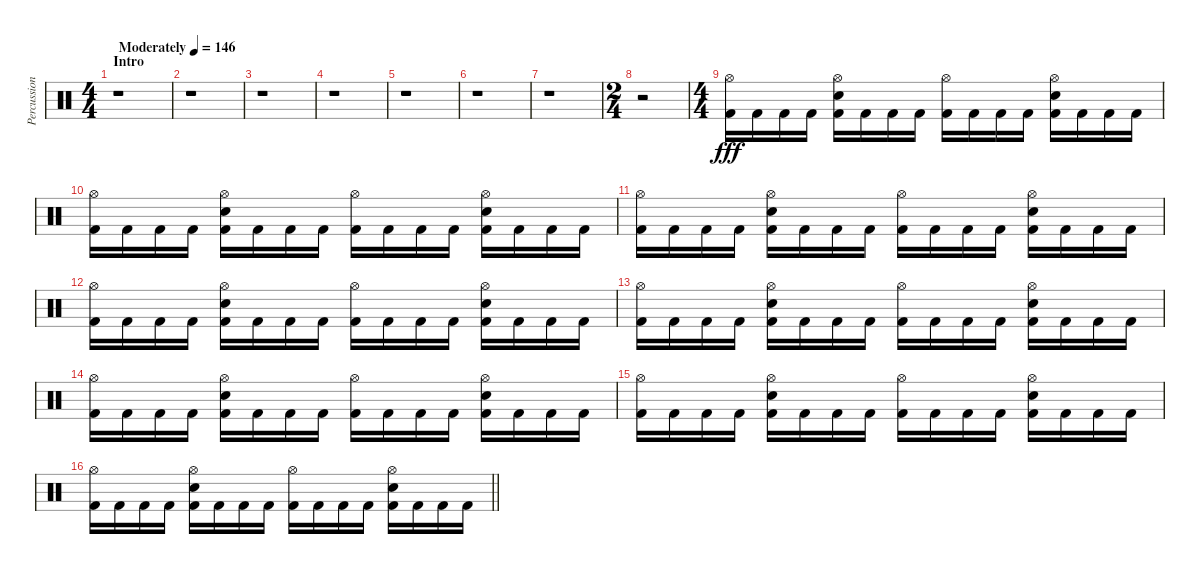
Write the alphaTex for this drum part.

\track ("Percussions" "Percussion") {instrument percussion}
\staff {score}
\articulation defaults
\ts (4 4)
\section ("" "Intro")
\tempo (146 "Moderately")
\clef neutral
\ks c
r.1{dy fff} |
r.1 |
r.1 |
r.1 |
r.1 |
r.1 |
r.1 |
\ts (2 4)
r.2 |
\ts (4 4)
("Hi-Hat (open)" "Kick (hit) 2").16 "Kick (hit) 2".16 "Kick (hit) 2".16 "Kick (hit) 2".16 ("Hi-Hat (open)" "Snare (hit) 2" "Kick (hit) 2").16 "Kick (hit) 2".16 "Kick (hit) 2".16 "Kick (hit) 2".16 ("Hi-Hat (open)" "Kick (hit) 2").16 "Kick (hit) 2".16 "Kick (hit) 2".16 "Kick (hit) 2".16 ("Hi-Hat (open)" "Snare (hit) 2" "Kick (hit) 2").16 "Kick (hit) 2".16 "Kick (hit) 2".16 "Kick (hit) 2".16 |
("Hi-Hat (open)" "Kick (hit) 2").16 "Kick (hit) 2".16 "Kick (hit) 2".16 "Kick (hit) 2".16 ("Hi-Hat (open)" "Snare (hit) 2" "Kick (hit) 2").16 "Kick (hit) 2".16 "Kick (hit) 2".16 "Kick (hit) 2".16 ("Hi-Hat (open)" "Kick (hit) 2").16 "Kick (hit) 2".16 "Kick (hit) 2".16 "Kick (hit) 2".16 ("Hi-Hat (open)" "Snare (hit) 2" "Kick (hit) 2").16 "Kick (hit) 2".16 "Kick (hit) 2".16 "Kick (hit) 2".16 |
("Hi-Hat (open)" "Kick (hit) 2").16 "Kick (hit) 2".16 "Kick (hit) 2".16 "Kick (hit) 2".16 ("Hi-Hat (open)" "Snare (hit) 2" "Kick (hit) 2").16 "Kick (hit) 2".16 "Kick (hit) 2".16 "Kick (hit) 2".16 ("Hi-Hat (open)" "Kick (hit) 2").16 "Kick (hit) 2".16 "Kick (hit) 2".16 "Kick (hit) 2".16 ("Hi-Hat (open)" "Snare (hit) 2" "Kick (hit) 2").16 "Kick (hit) 2".16 "Kick (hit) 2".16 "Kick (hit) 2".16 |
("Hi-Hat (open)" "Kick (hit) 2").16 "Kick (hit) 2".16 "Kick (hit) 2".16 "Kick (hit) 2".16 ("Hi-Hat (open)" "Snare (hit) 2" "Kick (hit) 2").16 "Kick (hit) 2".16 "Kick (hit) 2".16 "Kick (hit) 2".16 ("Hi-Hat (open)" "Kick (hit) 2").16 "Kick (hit) 2".16 "Kick (hit) 2".16 "Kick (hit) 2".16 ("Hi-Hat (open)" "Snare (hit) 2" "Kick (hit) 2").16 "Kick (hit) 2".16 "Kick (hit) 2".16 "Kick (hit) 2".16 |
("Hi-Hat (open)" "Kick (hit) 2").16 "Kick (hit) 2".16 "Kick (hit) 2".16 "Kick (hit) 2".16 ("Hi-Hat (open)" "Snare (hit) 2" "Kick (hit) 2").16 "Kick (hit) 2".16 "Kick (hit) 2".16 "Kick (hit) 2".16 ("Hi-Hat (open)" "Kick (hit) 2").16 "Kick (hit) 2".16 "Kick (hit) 2".16 "Kick (hit) 2".16 ("Hi-Hat (open)" "Snare (hit) 2" "Kick (hit) 2").16 "Kick (hit) 2".16 "Kick (hit) 2".16 "Kick (hit) 2".16 |
("Hi-Hat (open)" "Kick (hit) 2").16 "Kick (hit) 2".16 "Kick (hit) 2".16 "Kick (hit) 2".16 ("Hi-Hat (open)" "Snare (hit) 2" "Kick (hit) 2").16 "Kick (hit) 2".16 "Kick (hit) 2".16 "Kick (hit) 2".16 ("Hi-Hat (open)" "Kick (hit) 2").16 "Kick (hit) 2".16 "Kick (hit) 2".16 "Kick (hit) 2".16 ("Hi-Hat (open)" "Snare (hit) 2" "Kick (hit) 2").16 "Kick (hit) 2".16 "Kick (hit) 2".16 "Kick (hit) 2".16 |
("Hi-Hat (open)" "Kick (hit) 2").16 "Kick (hit) 2".16 "Kick (hit) 2".16 "Kick (hit) 2".16 ("Hi-Hat (open)" "Snare (hit) 2" "Kick (hit) 2").16 "Kick (hit) 2".16 "Kick (hit) 2".16 "Kick (hit) 2".16 ("Hi-Hat (open)" "Kick (hit) 2").16 "Kick (hit) 2".16 "Kick (hit) 2".16 "Kick (hit) 2".16 ("Hi-Hat (open)" "Snare (hit) 2" "Kick (hit) 2").16 "Kick (hit) 2".16 "Kick (hit) 2".16 "Kick (hit) 2".16 |
\barLineRight lightlight
("Hi-Hat (open)" "Kick (hit) 2").16 "Kick (hit) 2".16 "Kick (hit) 2".16 "Kick (hit) 2".16 ("Hi-Hat (open)" "Snare (hit) 2" "Kick (hit) 2").16 "Kick (hit) 2".16 "Kick (hit) 2".16 "Kick (hit) 2".16 ("Hi-Hat (open)" "Kick (hit) 2").16 "Kick (hit) 2".16 "Kick (hit) 2".16 "Kick (hit) 2".16 ("Hi-Hat (open)" "Snare (hit) 2" "Kick (hit) 2").16 "Kick (hit) 2".16 "Kick (hit) 2".16 "Kick (hit) 2".16
